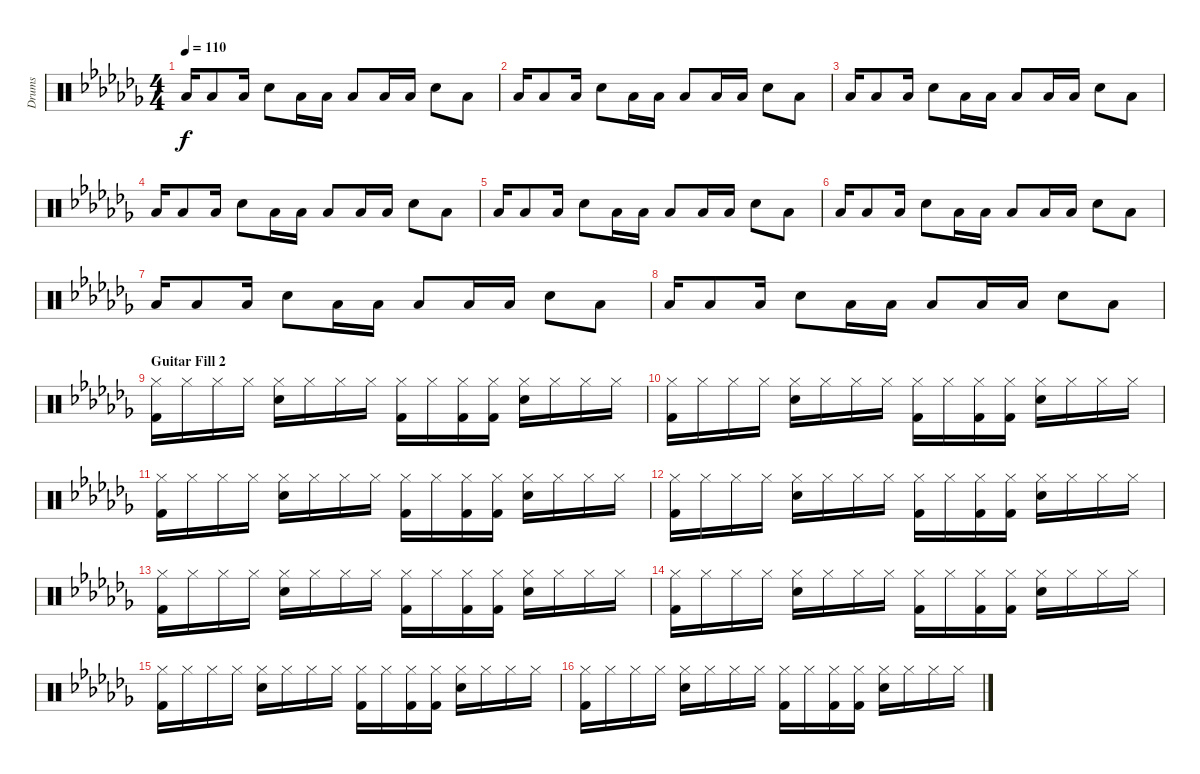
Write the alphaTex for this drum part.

\track ("Drums" "Drums") {instrument percussion}
\staff {score}
\articulation defaults
\ts (4 4)
\tempo 110
\clef neutral
\ks abminor "Low Tom (hit)".16{dy f} "Low Tom (hit)".8 "Low Tom (hit)".16 "Snare (hit) 2".8 "Low Tom (hit)".16 "Low Tom (hit)".16 "Low Tom (hit)".8 "Low Tom (hit)".16 "Low Tom (hit)".16 "Snare (hit) 2".8 "Low Tom (hit)".8
|
"Low Tom (hit)".16 "Low Tom (hit)".8 "Low Tom (hit)".16 "Snare (hit) 2".8 "Low Tom (hit)".16 "Low Tom (hit)".16 "Low Tom (hit)".8 "Low Tom (hit)".16 "Low Tom (hit)".16 "Snare (hit) 2".8 "Low Tom (hit)".8 |
"Low Tom (hit)".16 "Low Tom (hit)".8 "Low Tom (hit)".16 "Snare (hit) 2".8 "Low Tom (hit)".16 "Low Tom (hit)".16 "Low Tom (hit)".8 "Low Tom (hit)".16 "Low Tom (hit)".16 "Snare (hit) 2".8 "Low Tom (hit)".8 |
"Low Tom (hit)".16 "Low Tom (hit)".8 "Low Tom (hit)".16 "Snare (hit) 2".8 "Low Tom (hit)".16 "Low Tom (hit)".16 "Low Tom (hit)".8 "Low Tom (hit)".16 "Low Tom (hit)".16 "Snare (hit) 2".8 "Low Tom (hit)".8 |
"Low Tom (hit)".16 "Low Tom (hit)".8 "Low Tom (hit)".16 "Snare (hit) 2".8 "Low Tom (hit)".16 "Low Tom (hit)".16 "Low Tom (hit)".8 "Low Tom (hit)".16 "Low Tom (hit)".16 "Snare (hit) 2".8 "Low Tom (hit)".8 |
"Low Tom (hit)".16 "Low Tom (hit)".8 "Low Tom (hit)".16 "Snare (hit) 2".8 "Low Tom (hit)".16 "Low Tom (hit)".16 "Low Tom (hit)".8 "Low Tom (hit)".16 "Low Tom (hit)".16 "Snare (hit) 2".8 "Low Tom (hit)".8 |
"Low Tom (hit)".16 "Low Tom (hit)".8 "Low Tom (hit)".16 "Snare (hit) 2".8 "Low Tom (hit)".16 "Low Tom (hit)".16 "Low Tom (hit)".8 "Low Tom (hit)".16 "Low Tom (hit)".16 "Snare (hit) 2".8 "Low Tom (hit)".8 |
"Low Tom (hit)".16 "Low Tom (hit)".8 "Low Tom (hit)".16 "Snare (hit) 2".8 "Low Tom (hit)".16 "Low Tom (hit)".16 "Low Tom (hit)".8 "Low Tom (hit)".16 "Low Tom (hit)".16 "Snare (hit) 2".8 "Low Tom (hit)".8 |
\section ("" "Guitar Fill 2")
("Hi-Hat (closed)" "Kick (hit) 2").16{volume 12} "Hi-Hat (closed)".16 "Hi-Hat (closed)".16 "Hi-Hat (closed)".16 ("Hi-Hat (closed)" "Snare (hit) 2").16 "Hi-Hat (closed)".16 "Hi-Hat (closed)".16 "Hi-Hat (closed)".16 ("Hi-Hat (closed)" "Kick (hit) 2").16 "Hi-Hat (closed)".16 ("Hi-Hat (closed)" "Kick (hit) 2").16 ("Hi-Hat (closed)" "Kick (hit) 2").16 ("Hi-Hat (closed)" "Snare (hit) 2").16 "Hi-Hat (closed)".16 "Hi-Hat (closed)".16 "Hi-Hat (closed)".16 |
("Hi-Hat (closed)" "Kick (hit) 2").16 "Hi-Hat (closed)".16 "Hi-Hat (closed)".16 "Hi-Hat (closed)".16 ("Hi-Hat (closed)" "Snare (hit) 2").16 "Hi-Hat (closed)".16 "Hi-Hat (closed)".16 "Hi-Hat (closed)".16 ("Hi-Hat (closed)" "Kick (hit) 2").16 "Hi-Hat (closed)".16 ("Hi-Hat (closed)" "Kick (hit) 2").16 ("Hi-Hat (closed)" "Kick (hit) 2").16 ("Hi-Hat (closed)" "Snare (hit) 2").16 "Hi-Hat (closed)".16 "Hi-Hat (closed)".16 "Hi-Hat (closed)".16 |
("Hi-Hat (closed)" "Kick (hit) 2").16 "Hi-Hat (closed)".16 "Hi-Hat (closed)".16 "Hi-Hat (closed)".16 ("Hi-Hat (closed)" "Snare (hit) 2").16 "Hi-Hat (closed)".16 "Hi-Hat (closed)".16 "Hi-Hat (closed)".16 ("Hi-Hat (closed)" "Kick (hit) 2").16 "Hi-Hat (closed)".16 ("Hi-Hat (closed)" "Kick (hit) 2").16 ("Hi-Hat (closed)" "Kick (hit) 2").16 ("Hi-Hat (closed)" "Snare (hit) 2").16 "Hi-Hat (closed)".16 "Hi-Hat (closed)".16 "Hi-Hat (closed)".16 |
("Hi-Hat (closed)" "Kick (hit) 2").16 "Hi-Hat (closed)".16 "Hi-Hat (closed)".16 "Hi-Hat (closed)".16 ("Hi-Hat (closed)" "Snare (hit) 2").16 "Hi-Hat (closed)".16 "Hi-Hat (closed)".16 "Hi-Hat (closed)".16 ("Hi-Hat (closed)" "Kick (hit) 2").16 "Hi-Hat (closed)".16 ("Hi-Hat (closed)" "Kick (hit) 2").16 ("Hi-Hat (closed)" "Kick (hit) 2").16 ("Hi-Hat (closed)" "Snare (hit) 2").16 "Hi-Hat (closed)".16 "Hi-Hat (closed)".16 "Hi-Hat (closed)".16 |
("Hi-Hat (closed)" "Kick (hit) 2").16 "Hi-Hat (closed)".16 "Hi-Hat (closed)".16 "Hi-Hat (closed)".16 ("Hi-Hat (closed)" "Snare (hit) 2").16 "Hi-Hat (closed)".16 "Hi-Hat (closed)".16 "Hi-Hat (closed)".16 ("Hi-Hat (closed)" "Kick (hit) 2").16 "Hi-Hat (closed)".16 ("Hi-Hat (closed)" "Kick (hit) 2").16 ("Hi-Hat (closed)" "Kick (hit) 2").16 ("Hi-Hat (closed)" "Snare (hit) 2").16 "Hi-Hat (closed)".16 "Hi-Hat (closed)".16 "Hi-Hat (closed)".16 |
("Hi-Hat (closed)" "Kick (hit) 2").16 "Hi-Hat (closed)".16 "Hi-Hat (closed)".16 "Hi-Hat (closed)".16 ("Hi-Hat (closed)" "Snare (hit) 2").16 "Hi-Hat (closed)".16 "Hi-Hat (closed)".16 "Hi-Hat (closed)".16 ("Hi-Hat (closed)" "Kick (hit) 2").16 "Hi-Hat (closed)".16 ("Hi-Hat (closed)" "Kick (hit) 2").16 ("Hi-Hat (closed)" "Kick (hit) 2").16 ("Hi-Hat (closed)" "Snare (hit) 2").16 "Hi-Hat (closed)".16 "Hi-Hat (closed)".16 "Hi-Hat (closed)".16 |
("Hi-Hat (closed)" "Kick (hit) 2").16 "Hi-Hat (closed)".16 "Hi-Hat (closed)".16 "Hi-Hat (closed)".16 ("Hi-Hat (closed)" "Snare (hit) 2").16 "Hi-Hat (closed)".16 "Hi-Hat (closed)".16 "Hi-Hat (closed)".16 ("Hi-Hat (closed)" "Kick (hit) 2").16 "Hi-Hat (closed)".16 ("Hi-Hat (closed)" "Kick (hit) 2").16 ("Hi-Hat (closed)" "Kick (hit) 2").16 ("Hi-Hat (closed)" "Snare (hit) 2").16 "Hi-Hat (closed)".16 "Hi-Hat (closed)".16 "Hi-Hat (closed)".16 |
("Hi-Hat (closed)" "Kick (hit) 2").16 "Hi-Hat (closed)".16 "Hi-Hat (closed)".16 "Hi-Hat (closed)".16 ("Hi-Hat (closed)" "Snare (hit) 2").16 "Hi-Hat (closed)".16 "Hi-Hat (closed)".16 "Hi-Hat (closed)".16 ("Hi-Hat (closed)" "Kick (hit) 2").16 "Hi-Hat (closed)".16 ("Hi-Hat (closed)" "Kick (hit) 2").16 ("Hi-Hat (closed)" "Kick (hit) 2").16 ("Hi-Hat (closed)" "Snare (hit) 2").16 "Hi-Hat (closed)".16 "Hi-Hat (closed)".16 "Hi-Hat (closed)".16
